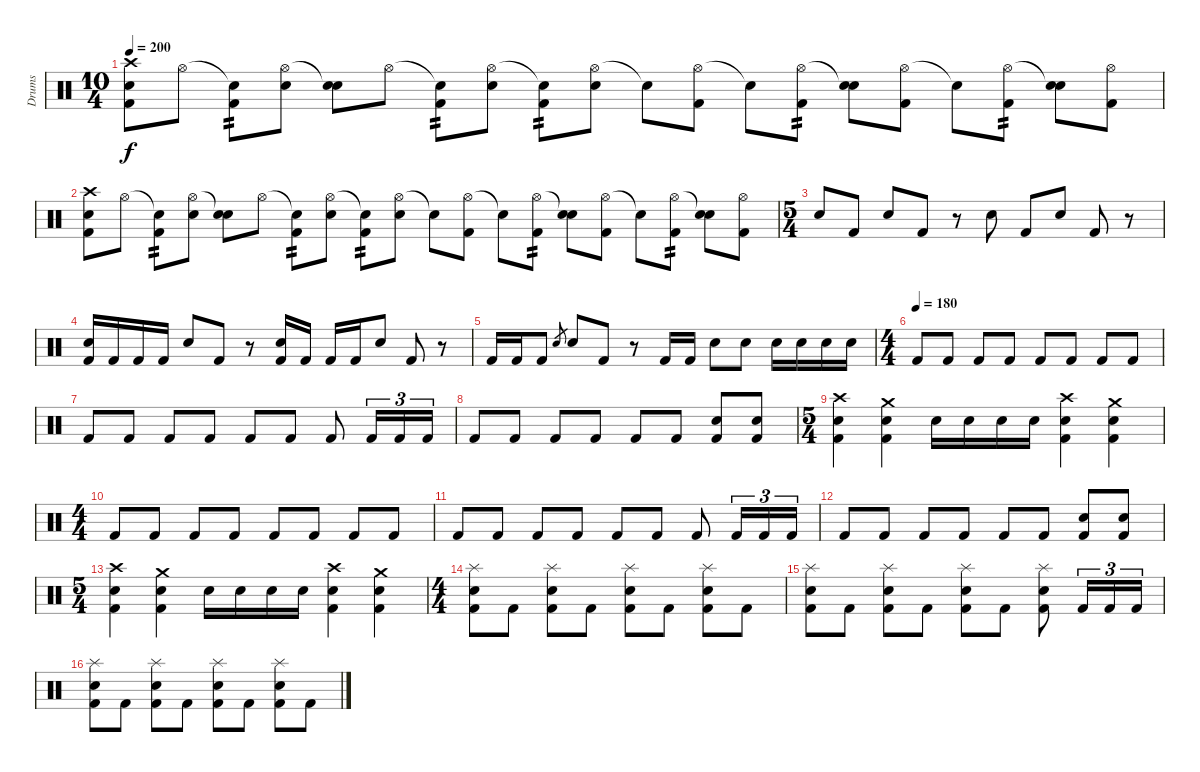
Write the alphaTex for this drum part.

\track ("Drums" "Drums") {instrument percussion}
\staff {score}
\articulation defaults
\ts (10 4)
\tempo 200
\clef neutral
\ks c
("Crash high (hit)" "Snare (hit) 2" "Kick (hit) 2").8{dy f} "Hi-Hat (open)".8 ("Snare (hit)"{t} "Kick (hit) 2").8{tp 2} ("Hi-Hat (open)" "Snare (hit) 2").8 ("Snare (hit)"{t} "Snare (hit) 2").8 "Hi-Hat (open)".8 ("Snare (hit)"{t} "Kick (hit) 2").8{tp 2} ("Hi-Hat (open)" "Snare (hit) 2").8 ("Snare (hit)"{t} "Kick (hit) 2").8{tp 2} ("Hi-Hat (open)" "Snare (hit) 2").8 "Snare (hit)"{t}.8 ("Hi-Hat (open)" "Kick (hit) 2").8 "Snare (hit)"{t}.8 ("Hi-Hat (open)" "Kick (hit) 2").8{tp 2} ("Snare (hit)"{t} "Snare (hit) 2").8 ("Hi-Hat (open)" "Kick (hit) 2").8 "Snare (hit)"{t}.8 ("Hi-Hat (open)" "Kick (hit) 2").8{tp 2} ("Snare (hit)"{t} "Snare (hit) 2").8 ("Hi-Hat (open)" "Kick (hit) 2").8 |
("Crash high (hit)" "Snare (hit) 2" "Kick (hit) 2").8 "Hi-Hat (open)".8 ("Snare (hit)"{t} "Kick (hit) 2").8{tp 2} ("Hi-Hat (open)" "Snare (hit) 2").8 ("Snare (hit)"{t} "Snare (hit) 2").8 "Hi-Hat (open)".8 ("Snare (hit)"{t} "Kick (hit) 2").8{tp 2} ("Hi-Hat (open)" "Snare (hit) 2").8 ("Snare (hit)"{t} "Kick (hit) 2").8{tp 2} ("Hi-Hat (open)" "Snare (hit) 2").8 "Snare (hit)"{t}.8 ("Hi-Hat (open)" "Kick (hit) 2").8 "Snare (hit)"{t}.8 ("Hi-Hat (open)" "Kick (hit) 2").8{tp 2} ("Snare (hit)"{t} "Snare (hit) 2").8 ("Hi-Hat (open)" "Kick (hit) 2").8 "Snare (hit)"{t}.8 ("Hi-Hat (open)" "Kick (hit) 2").8{tp 2} ("Snare (hit)"{t} "Snare (hit) 2").8 ("Hi-Hat (open)" "Kick (hit) 2").8 |
\ts (5 4)
"Snare (hit) 2".8 "Kick (hit) 2".8 "Snare (hit) 2".8 "Kick (hit) 2".8 r.8 "Snare (hit) 2".8 "Kick (hit) 2".8 "Snare (hit) 2".8 "Kick (hit) 2".8 r.8 |
("Snare (hit) 2" "Kick (hit) 2").16 "Kick (hit) 2".16 "Kick (hit) 2".16 "Kick (hit) 2".16 "Snare (hit) 2".8 "Kick (hit) 2".8 r.8 ("Snare (hit) 2" "Kick (hit) 2").16 "Kick (hit) 2".16 "Kick (hit) 2".16 "Kick (hit) 2".16 "Snare (hit) 2".8 "Kick (hit) 2".8 r.8 |
"Kick (hit) 2".16 "Kick (hit) 2".16 "Kick (hit) 2".8 "Snare (hit) 2".8{gr} "Snare (hit) 2".8 "Kick (hit) 2".8 r.8 "Kick (hit) 2".16 "Kick (hit) 2".16 "Snare (hit) 2".8 "Snare (hit) 2".8 "Snare (hit) 2".16 "Snare (hit) 2".16 "Snare (hit) 2".16 "Snare (hit) 2".16 |
\ts (4 4)
\tempo (180)
"Kick (hit) 2".8 "Kick (hit) 2".8 "Kick (hit) 2".8 "Kick (hit) 2".8 "Kick (hit) 2".8 "Kick (hit) 2".8 "Kick (hit) 2".8 "Kick (hit) 2".8 |
"Kick (hit) 2".8 "Kick (hit) 2".8 "Kick (hit) 2".8 "Kick (hit) 2".8 "Kick (hit) 2".8 "Kick (hit) 2".8 "Kick (hit) 2".8 "Kick (hit) 2".16{tu (3 2)} "Kick (hit) 2".16{tu (3 2)} "Kick (hit) 2".16{tu (3 2)} |
"Kick (hit) 2".8 "Kick (hit) 2".8 "Kick (hit) 2".8 "Kick (hit) 2".8 "Kick (hit) 2".8 "Kick (hit) 2".8 ("Snare (hit) 2" "Kick (hit) 2").8 ("Snare (hit) 2" "Kick (hit) 2").8 |
\ts (5 4)
("Crash high (hit)" "Snare (hit) 2" "Kick (hit) 2").4 ("Crash medium (hit)" "Snare (hit) 2" "Kick (hit) 2").4 "Snare (hit) 2".16 "Snare (hit) 2".16 "Snare (hit) 2".16 "Snare (hit) 2".16 ("Crash high (hit)" "Snare (hit) 2" "Kick (hit) 2").4 ("Crash medium (hit)" "Snare (hit) 2" "Kick (hit) 2").4 |
\ts (4 4)
"Kick (hit) 2".8 "Kick (hit) 2".8 "Kick (hit) 2".8 "Kick (hit) 2".8 "Kick (hit) 2".8 "Kick (hit) 2".8 "Kick (hit) 2".8 "Kick (hit) 2".8 |
"Kick (hit) 2".8 "Kick (hit) 2".8 "Kick (hit) 2".8 "Kick (hit) 2".8 "Kick (hit) 2".8 "Kick (hit) 2".8 "Kick (hit) 2".8 "Kick (hit) 2".16{tu (3 2)} "Kick (hit) 2".16{tu (3 2)} "Kick (hit) 2".16{tu (3 2)} |
"Kick (hit) 2".8 "Kick (hit) 2".8 "Kick (hit) 2".8 "Kick (hit) 2".8 "Kick (hit) 2".8 "Kick (hit) 2".8 ("Snare (hit) 2" "Kick (hit) 2").8 ("Snare (hit) 2" "Kick (hit) 2").8 |
\ts (5 4)
("Crash high (hit)" "Snare (hit) 2" "Kick (hit) 2").4 ("Crash medium (hit)" "Snare (hit) 2" "Kick (hit) 2").4 "Snare (hit) 2".16 "Snare (hit) 2".16 "Snare (hit) 2".16 "Snare (hit) 2".16 ("Crash high (hit)" "Snare (hit) 2" "Kick (hit) 2").4 ("Crash medium (hit)" "Snare (hit) 2" "Kick (hit) 2").4 |
\ts (4 4)
("Splash (hit)" "Snare (hit) 2" "Kick (hit) 2").8 "Kick (hit) 2".8 ("Splash (hit)" "Snare (hit) 2" "Kick (hit) 2").8 "Kick (hit) 2".8 ("Splash (hit)" "Snare (hit) 2" "Kick (hit) 2").8 "Kick (hit) 2".8 ("Splash (hit)" "Snare (hit) 2" "Kick (hit) 2").8 "Kick (hit) 2".8 |
("Splash (hit)" "Snare (hit) 2" "Kick (hit) 2").8 "Kick (hit) 2".8 ("Splash (hit)" "Snare (hit) 2" "Kick (hit) 2").8 "Kick (hit) 2".8 ("Splash (hit)" "Snare (hit) 2" "Kick (hit) 2").8 "Kick (hit) 2".8 ("Splash (hit)" "Snare (hit) 2" "Kick (hit) 2").8 "Kick (hit) 2".16{tu (3 2)} "Kick (hit) 2".16{tu (3 2)} "Kick (hit) 2".16{tu (3 2)} |
("Splash (hit)" "Snare (hit) 2" "Kick (hit) 2").8 "Kick (hit) 2".8 ("Splash (hit)" "Snare (hit) 2" "Kick (hit) 2").8 "Kick (hit) 2".8 ("Splash (hit)" "Snare (hit) 2" "Kick (hit) 2").8 "Kick (hit) 2".8 ("Splash (hit)" "Snare (hit) 2" "Kick (hit) 2").8 "Kick (hit) 2".8
